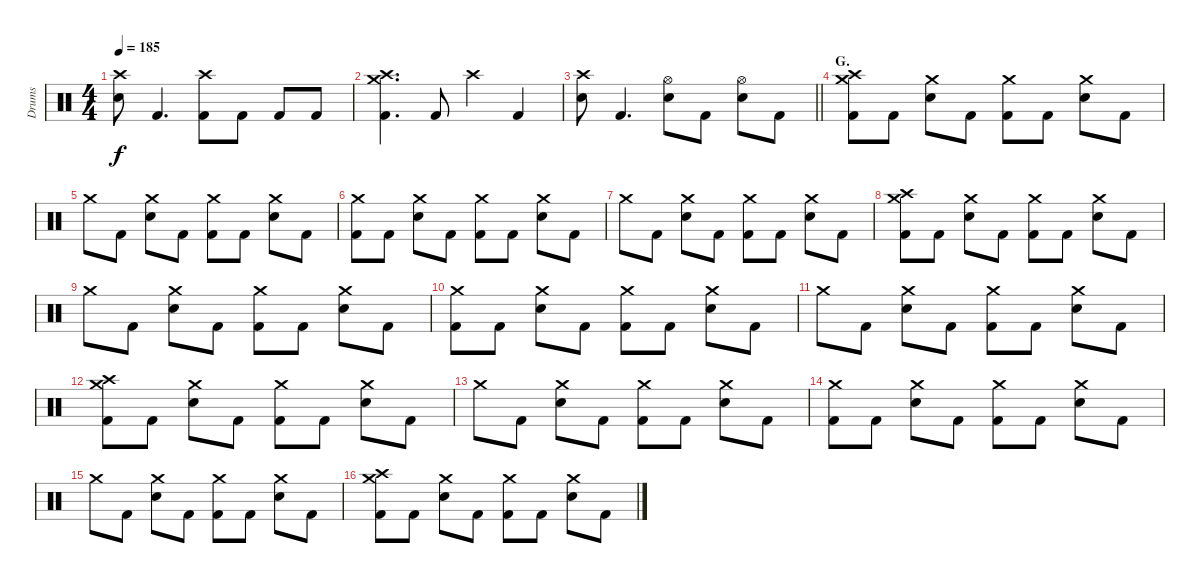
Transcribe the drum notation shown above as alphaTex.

\track ("Drums" "Drums") {instrument percussion}
\staff {score}
\articulation defaults
\ts (4 4)
\tempo 185
\clef neutral
\ks c
("Crash high (hit)" "Electric Snare (hit)").8{dy f} "Kick (hit) 2".4{d} ("Crash high (hit)" "Kick (hit) 2").8 "Kick (hit) 2".8 "Kick (hit) 2".8 "Kick (hit) 2".8 |
("Crash medium (hit)" "Crash high (hit)" "Kick (hit) 2").4{d} "Kick (hit) 2".8 "Crash high (hit)".4 "Kick (hit) 2".4 |
\barLineRight lightlight
("Crash high (hit)" "Electric Snare (hit)").8 "Kick (hit) 2".4{d} ("Hi-Hat (open)" "Electric Snare (hit)").8 "Kick (hit) 2".8 ("Hi-Hat (open)" "Electric Snare (hit)").8 "Kick (hit) 2".8 |
\section ("" "G.")
("Crash medium (hit)" "Crash high (hit)" "Kick (hit) 2").8 "Kick (hit) 2".8 ("Crash medium (hit)" "Electric Snare (hit)").8 "Kick (hit) 2".8 ("Crash medium (hit)" "Kick (hit) 2").8 "Kick (hit) 2".8 ("Crash medium (hit)" "Electric Snare (hit)").8 "Kick (hit) 2".8 |
"Crash medium (hit)".8 "Kick (hit) 2".8 ("Crash medium (hit)" "Electric Snare (hit)").8 "Kick (hit) 2".8 ("Crash medium (hit)" "Kick (hit) 2").8 "Kick (hit) 2".8 ("Crash medium (hit)" "Electric Snare (hit)").8 "Kick (hit) 2".8 |
("Crash medium (hit)" "Kick (hit) 2").8 "Kick (hit) 2".8 ("Crash medium (hit)" "Electric Snare (hit)").8 "Kick (hit) 2".8 ("Crash medium (hit)" "Kick (hit) 2").8 "Kick (hit) 2".8 ("Crash medium (hit)" "Electric Snare (hit)").8 "Kick (hit) 2".8 |
"Crash medium (hit)".8 "Kick (hit) 2".8 ("Crash medium (hit)" "Electric Snare (hit)").8 "Kick (hit) 2".8 ("Crash medium (hit)" "Kick (hit) 2").8 "Kick (hit) 2".8 ("Crash medium (hit)" "Electric Snare (hit)").8 "Kick (hit) 2".8 |
("Crash medium (hit)" "Crash high (hit)" "Kick (hit) 2").8 "Kick (hit) 2".8 ("Crash medium (hit)" "Electric Snare (hit)").8 "Kick (hit) 2".8 ("Crash medium (hit)" "Kick (hit) 2").8 "Kick (hit) 2".8 ("Crash medium (hit)" "Electric Snare (hit)").8 "Kick (hit) 2".8 |
"Crash medium (hit)".8 "Kick (hit) 2".8 ("Crash medium (hit)" "Electric Snare (hit)").8 "Kick (hit) 2".8 ("Crash medium (hit)" "Kick (hit) 2").8 "Kick (hit) 2".8 ("Crash medium (hit)" "Electric Snare (hit)").8 "Kick (hit) 2".8 |
("Crash medium (hit)" "Kick (hit) 2").8 "Kick (hit) 2".8 ("Crash medium (hit)" "Electric Snare (hit)").8 "Kick (hit) 2".8 ("Crash medium (hit)" "Kick (hit) 2").8 "Kick (hit) 2".8 ("Crash medium (hit)" "Electric Snare (hit)").8 "Kick (hit) 2".8 |
"Crash medium (hit)".8 "Kick (hit) 2".8 ("Crash medium (hit)" "Electric Snare (hit)").8 "Kick (hit) 2".8 ("Crash medium (hit)" "Kick (hit) 2").8 "Kick (hit) 2".8 ("Crash medium (hit)" "Electric Snare (hit)").8 "Kick (hit) 2".8 |
("Crash medium (hit)" "Crash high (hit)" "Kick (hit) 2").8 "Kick (hit) 2".8 ("Crash medium (hit)" "Electric Snare (hit)").8 "Kick (hit) 2".8 ("Crash medium (hit)" "Kick (hit) 2").8 "Kick (hit) 2".8 ("Crash medium (hit)" "Electric Snare (hit)").8 "Kick (hit) 2".8 |
"Crash medium (hit)".8 "Kick (hit) 2".8 ("Crash medium (hit)" "Electric Snare (hit)").8 "Kick (hit) 2".8 ("Crash medium (hit)" "Kick (hit) 2").8 "Kick (hit) 2".8 ("Crash medium (hit)" "Electric Snare (hit)").8 "Kick (hit) 2".8 |
("Crash medium (hit)" "Kick (hit) 2").8 "Kick (hit) 2".8 ("Crash medium (hit)" "Electric Snare (hit)").8 "Kick (hit) 2".8 ("Crash medium (hit)" "Kick (hit) 2").8 "Kick (hit) 2".8 ("Crash medium (hit)" "Electric Snare (hit)").8 "Kick (hit) 2".8 |
"Crash medium (hit)".8 "Kick (hit) 2".8 ("Crash medium (hit)" "Electric Snare (hit)").8 "Kick (hit) 2".8 ("Crash medium (hit)" "Kick (hit) 2").8 "Kick (hit) 2".8 ("Crash medium (hit)" "Electric Snare (hit)").8 "Kick (hit) 2".8 |
("Crash medium (hit)" "Crash high (hit)" "Kick (hit) 2").8 "Kick (hit) 2".8 ("Crash medium (hit)" "Electric Snare (hit)").8 "Kick (hit) 2".8 ("Crash medium (hit)" "Kick (hit) 2").8 "Kick (hit) 2".8 ("Crash medium (hit)" "Electric Snare (hit)").8 "Kick (hit) 2".8
